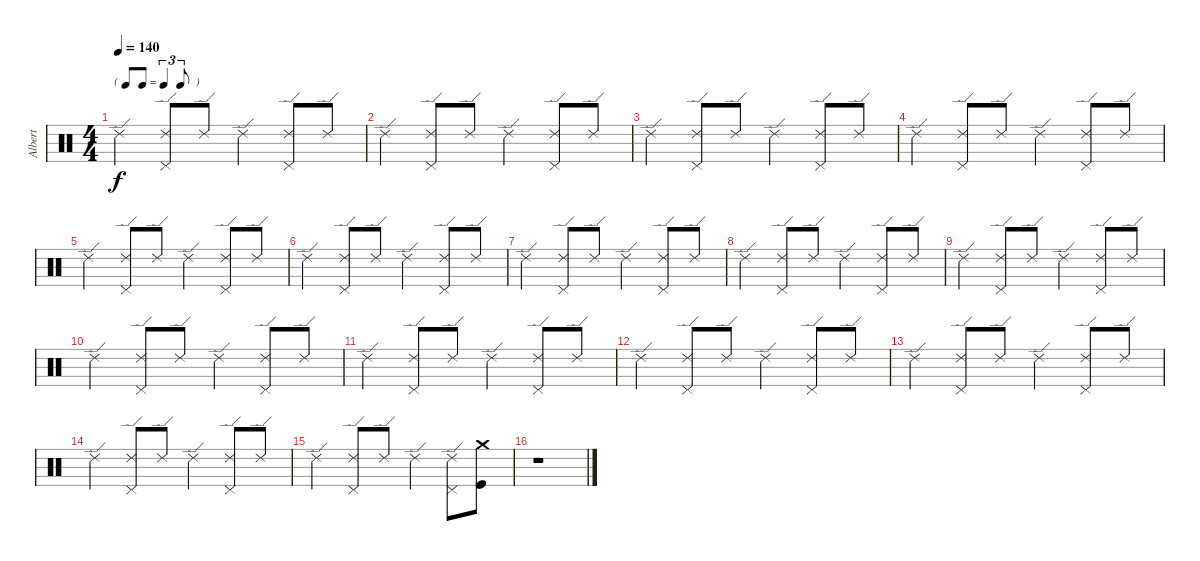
\track ("Albert" "Albert") {instrument percussion}
\staff {score}
\articulation defaults
\ts (4 4)
\tf triplet8th
\tempo 140
\clef neutral
\ks c "Ride (edge) 2".4{dy f}
("Ride (edge) 2" "Pedal Hi-Hat (hit)").8 "Ride (edge) 2".8 "Ride (edge) 2".4 ("Ride (edge) 2" "Pedal Hi-Hat (hit)").8 "Ride (edge) 2".8 |
"Ride (edge) 2".4 ("Ride (edge) 2" "Pedal Hi-Hat (hit)").8 "Ride (edge) 2".8 "Ride (edge) 2".4 ("Ride (edge) 2" "Pedal Hi-Hat (hit)").8 "Ride (edge) 2".8 |
"Ride (edge) 2".4 ("Ride (edge) 2" "Pedal Hi-Hat (hit)").8 "Ride (edge) 2".8 "Ride (edge) 2".4 ("Ride (edge) 2" "Pedal Hi-Hat (hit)").8 "Ride (edge) 2".8 |
"Ride (edge) 2".4 ("Ride (edge) 2" "Pedal Hi-Hat (hit)").8 "Ride (edge) 2".8 "Ride (edge) 2".4 ("Ride (edge) 2" "Pedal Hi-Hat (hit)").8 "Ride (edge) 2".8 |
"Ride (edge) 2".4 ("Ride (edge) 2" "Pedal Hi-Hat (hit)").8 "Ride (edge) 2".8 "Ride (edge) 2".4 ("Ride (edge) 2" "Pedal Hi-Hat (hit)").8 "Ride (edge) 2".8 |
"Ride (edge) 2".4 ("Ride (edge) 2" "Pedal Hi-Hat (hit)").8 "Ride (edge) 2".8 "Ride (edge) 2".4 ("Ride (edge) 2" "Pedal Hi-Hat (hit)").8 "Ride (edge) 2".8 |
"Ride (edge) 2".4 ("Ride (edge) 2" "Pedal Hi-Hat (hit)").8 "Ride (edge) 2".8 "Ride (edge) 2".4 ("Ride (edge) 2" "Pedal Hi-Hat (hit)").8 "Ride (edge) 2".8 |
"Ride (edge) 2".4 ("Ride (edge) 2" "Pedal Hi-Hat (hit)").8 "Ride (edge) 2".8 "Ride (edge) 2".4 ("Ride (edge) 2" "Pedal Hi-Hat (hit)").8 "Ride (edge) 2".8 |
"Ride (edge) 2".4 ("Ride (edge) 2" "Pedal Hi-Hat (hit)").8 "Ride (edge) 2".8 "Ride (edge) 2".4 ("Ride (edge) 2" "Pedal Hi-Hat (hit)").8 "Ride (edge) 2".8 |
"Ride (edge) 2".4 ("Ride (edge) 2" "Pedal Hi-Hat (hit)").8 "Ride (edge) 2".8 "Ride (edge) 2".4 ("Ride (edge) 2" "Pedal Hi-Hat (hit)").8 "Ride (edge) 2".8 |
"Ride (edge) 2".4 ("Ride (edge) 2" "Pedal Hi-Hat (hit)").8 "Ride (edge) 2".8 "Ride (edge) 2".4 ("Ride (edge) 2" "Pedal Hi-Hat (hit)").8 "Ride (edge) 2".8 |
"Ride (edge) 2".4 ("Ride (edge) 2" "Pedal Hi-Hat (hit)").8 "Ride (edge) 2".8 "Ride (edge) 2".4 ("Ride (edge) 2" "Pedal Hi-Hat (hit)").8 "Ride (edge) 2".8 |
"Ride (edge) 2".4 ("Ride (edge) 2" "Pedal Hi-Hat (hit)").8 "Ride (edge) 2".8 "Ride (edge) 2".4 ("Ride (edge) 2" "Pedal Hi-Hat (hit)").8 "Ride (edge) 2".8 |
"Ride (edge) 2".4 ("Ride (edge) 2" "Pedal Hi-Hat (hit)").8 "Ride (edge) 2".8 "Ride (edge) 2".4 ("Ride (edge) 2" "Pedal Hi-Hat (hit)").8 "Ride (edge) 2".8 |
"Ride (edge) 2".4 ("Ride (edge) 2" "Pedal Hi-Hat (hit)").8 "Ride (edge) 2".8 "Ride (edge) 2".4 ("Ride (edge) 2" "Pedal Hi-Hat (hit)").8 ("Crash medium (hit)" "Kick (hit)").8 |
r.1
